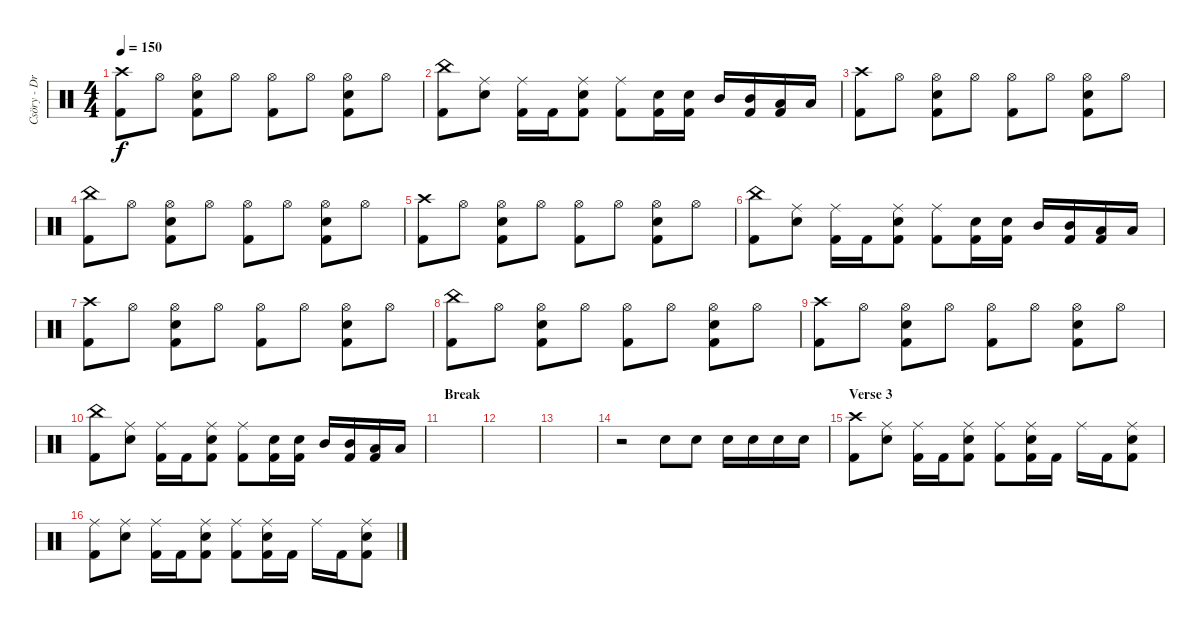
\track ("Csöry - DrumZ" "Csöry - Dr") {instrument percussion}
\staff {score}
\articulation defaults
\ts (4 4)
\tempo 150
\clef neutral
\ks c
("Crash high (hit)" "Kick (hit) 2").8{dy f} "Hi-Hat (open)".8 ("Hi-Hat (open)" "Snare (hit) 2" "Kick (hit) 2").8 "Hi-Hat (open)".8 ("Hi-Hat (open)" "Kick (hit) 2").8 "Hi-Hat (open)".8 ("Hi-Hat (open)" "Snare (hit) 2" "Kick (hit) 2").8 "Hi-Hat (open)".8 |
("China (hit)" "Kick (hit) 2").8 ("Ride (middle)" "Snare (hit) 2").8 ("Ride (middle)" "Kick (hit) 2").16 "Kick (hit) 2".16 ("Ride (middle)" "Snare (hit) 2" "Kick (hit) 2").8 ("Ride (middle)" "Kick (hit) 2").8 ("Snare (hit) 2" "Kick (hit) 2").16 ("Snare (hit) 2" "Kick (hit) 2").16 "Mid Tom (hit)".16 ("Mid Tom (hit)" "Kick (hit) 2").16 ("Low Tom (hit)" "Kick (hit) 2").16 "Low Floor Tom (hit)".16 |
("Crash high (hit)" "Kick (hit) 2").8 "Hi-Hat (open)".8 ("Hi-Hat (open)" "Snare (hit) 2" "Kick (hit) 2").8 "Hi-Hat (open)".8 ("Hi-Hat (open)" "Kick (hit) 2").8 "Hi-Hat (open)".8 ("Hi-Hat (open)" "Snare (hit) 2" "Kick (hit) 2").8 "Hi-Hat (open)".8 |
("China (hit)" "Kick (hit) 2").8 "Hi-Hat (open)".8 ("Hi-Hat (open)" "Snare (hit) 2" "Kick (hit) 2").8 "Hi-Hat (open)".8 ("Hi-Hat (open)" "Kick (hit) 2").8 "Hi-Hat (open)".8 ("Hi-Hat (open)" "Snare (hit) 2" "Kick (hit) 2").8 "Hi-Hat (open)".8 |
("Crash high (hit)" "Kick (hit) 2").8 "Hi-Hat (open)".8 ("Hi-Hat (open)" "Snare (hit) 2" "Kick (hit) 2").8 "Hi-Hat (open)".8 ("Hi-Hat (open)" "Kick (hit) 2").8 "Hi-Hat (open)".8 ("Hi-Hat (open)" "Snare (hit) 2" "Kick (hit) 2").8 "Hi-Hat (open)".8 |
("China (hit)" "Kick (hit) 2").8 ("Ride (middle)" "Snare (hit) 2").8 ("Ride (middle)" "Kick (hit) 2").16 "Kick (hit) 2".16 ("Ride (middle)" "Snare (hit) 2" "Kick (hit) 2").8 ("Ride (middle)" "Kick (hit) 2").8 ("Snare (hit) 2" "Kick (hit) 2").16 ("Snare (hit) 2" "Kick (hit) 2").16 "Mid Tom (hit)".16 ("Mid Tom (hit)" "Kick (hit) 2").16 ("Low Tom (hit)" "Kick (hit) 2").16 "Low Floor Tom (hit)".16 |
("Crash high (hit)" "Kick (hit) 2").8 "Hi-Hat (open)".8 ("Hi-Hat (open)" "Snare (hit) 2" "Kick (hit) 2").8 "Hi-Hat (open)".8 ("Hi-Hat (open)" "Kick (hit) 2").8 "Hi-Hat (open)".8 ("Hi-Hat (open)" "Snare (hit) 2" "Kick (hit) 2").8 "Hi-Hat (open)".8 |
("China (hit)" "Kick (hit) 2").8 "Hi-Hat (open)".8 ("Hi-Hat (open)" "Snare (hit) 2" "Kick (hit) 2").8 "Hi-Hat (open)".8 ("Hi-Hat (open)" "Kick (hit) 2").8 "Hi-Hat (open)".8 ("Hi-Hat (open)" "Snare (hit) 2" "Kick (hit) 2").8 "Hi-Hat (open)".8 |
("Crash high (hit)" "Kick (hit) 2").8 "Hi-Hat (open)".8 ("Hi-Hat (open)" "Snare (hit) 2" "Kick (hit) 2").8 "Hi-Hat (open)".8 ("Hi-Hat (open)" "Kick (hit) 2").8 "Hi-Hat (open)".8 ("Hi-Hat (open)" "Snare (hit) 2" "Kick (hit) 2").8 "Hi-Hat (open)".8 |
("China (hit)" "Kick (hit) 2").8 ("Ride (middle)" "Snare (hit) 2").8 ("Ride (middle)" "Kick (hit) 2").16 "Kick (hit) 2".16 ("Ride (middle)" "Snare (hit) 2" "Kick (hit) 2").8 ("Ride (middle)" "Kick (hit) 2").8 ("Snare (hit) 2" "Kick (hit) 2").16 ("Snare (hit) 2" "Kick (hit) 2").16 "Mid Tom (hit)".16 ("Mid Tom (hit)" "Kick (hit) 2").16 ("Low Tom (hit)" "Kick (hit) 2").16 "Low Floor Tom (hit)".16 |
\section ("" "Break")
|
|
|
r.2 "Snare (hit) 2".8 "Snare (hit) 2".8 "Snare (hit) 2".16 "Snare (hit) 2".16 "Snare (hit) 2".16 "Snare (hit) 2".16 |
\section ("" "Verse 3")
("Crash high (hit)" "Kick (hit) 2").8 ("Ride (middle)" "Snare (hit) 2").8 ("Ride (middle)" "Kick (hit) 2").16 "Kick (hit) 2".16 ("Ride (middle)" "Snare (hit) 2" "Kick (hit) 2").8 ("Ride (middle)" "Kick (hit) 2").8 ("Ride (middle)" "Snare (hit) 2" "Kick (hit) 2").16 "Kick (hit) 2".16 "Ride (middle)".16 "Kick (hit) 2".16 ("Ride (middle)" "Snare (hit) 2" "Kick (hit) 2").8 |
("Ride (middle)" "Kick (hit) 2").8 ("Ride (middle)" "Snare (hit) 2").8 ("Ride (middle)" "Kick (hit) 2").16 "Kick (hit) 2".16 ("Ride (middle)" "Snare (hit) 2" "Kick (hit) 2").8 ("Ride (middle)" "Kick (hit) 2").8 ("Ride (middle)" "Snare (hit) 2" "Kick (hit) 2").16 "Kick (hit) 2".16 "Ride (middle)".16 "Kick (hit) 2".16 ("Ride (middle)" "Snare (hit) 2" "Kick (hit) 2").8
